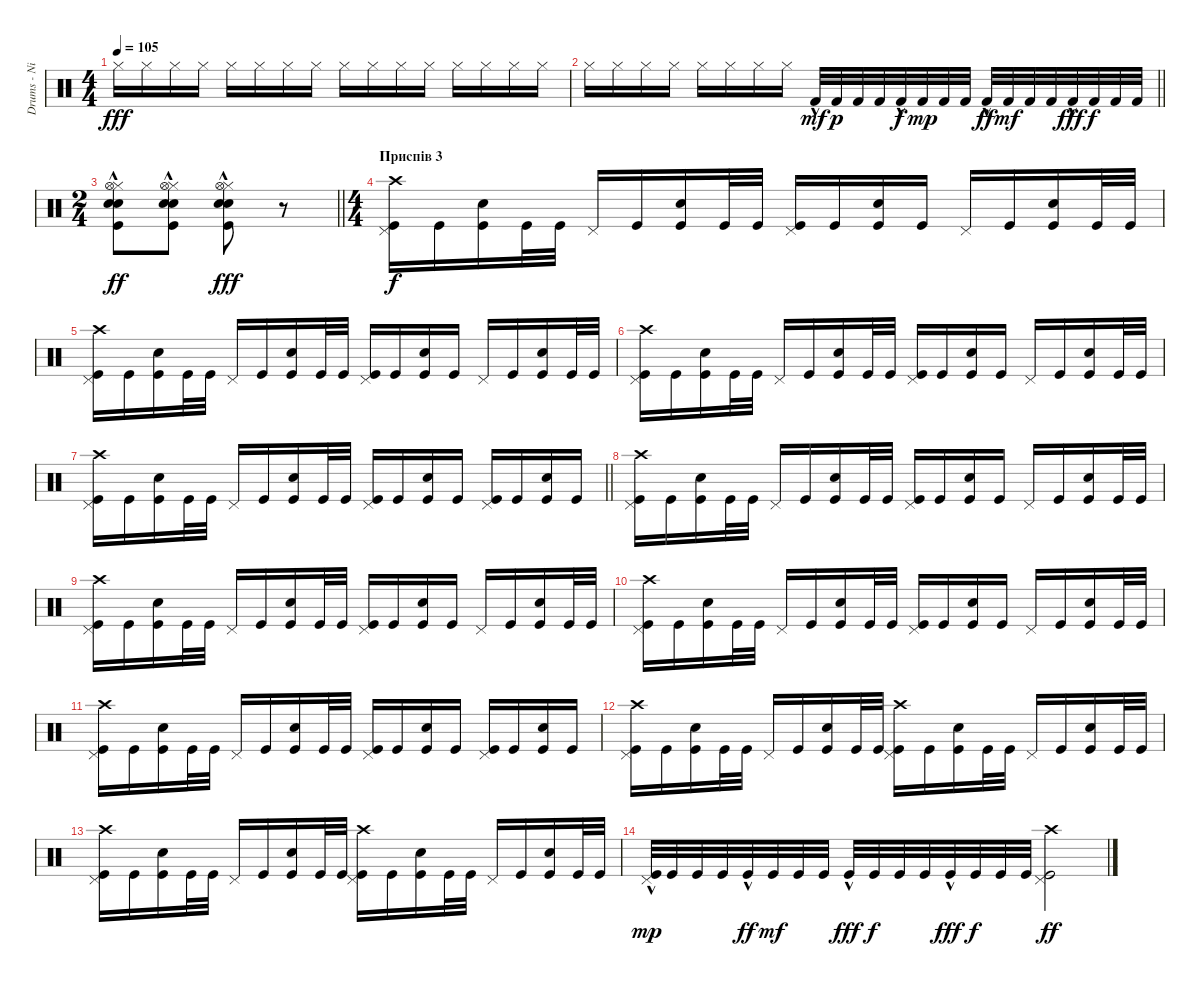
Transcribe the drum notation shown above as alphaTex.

\track ("Drums - NikiTon" "Drums - Ni") {instrument percussion}
\staff {score}
\articulation defaults
\ts (4 4)
\tempo 105
\clef neutral
\ks c "Hi-Hat (closed)".16{dy fff} "Hi-Hat (closed)".16 "Hi-Hat (closed)".16 "Hi-Hat (closed)".16 "Hi-Hat (closed)".16 "Hi-Hat (closed)".16 "Hi-Hat (closed)".16 "Hi-Hat (closed)".16 "Hi-Hat (closed)".16 "Hi-Hat (closed)".16 "Hi-Hat (closed)".16 "Hi-Hat (closed)".16 "Hi-Hat (closed)".16 "Hi-Hat (closed)".16 "Hi-Hat (closed)".16 "Hi-Hat (closed)".16
|
\barLineRight lightlight "Hi-Hat (closed)".16 "Hi-Hat (closed)".16 "Hi-Hat (closed)".16 "Hi-Hat (closed)".16 "Hi-Hat (closed)".16 "Hi-Hat (closed)".16 "Hi-Hat (closed)".16 "Hi-Hat (closed)".16 "Kick (hit) 2"{hac}.32{dy mf} "Kick (hit) 2".32{dy p} "Kick (hit) 2".32 "Kick (hit) 2".32 "Kick (hit) 2"{hac}.32{dy f} "Kick (hit) 2".32{dy mp} "Kick (hit) 2".32 "Kick (hit) 2".32 "Kick (hit) 2"{hac}.32{dy ff} "Kick (hit) 2".32{dy mf} "Kick (hit) 2".32 "Kick (hit) 2".32 "Kick (hit) 2"{hac}.32{dy fff} "Kick (hit) 2".32{dy f} "Kick (hit) 2".32 "Kick (hit) 2".32
|
\ts (2 4)
\barLineRight lightlight
("Hi-Hat (closed)" "Electric Snare (hit)" "Hi-Hat (open)" "Kick (hit)"{hac} "Snare (hit) 2").8{dy ff} ("Hi-Hat (closed)" "Electric Snare (hit)" "Hi-Hat (open)" "Kick (hit)"{hac} "Snare (hit) 2").8 ("Hi-Hat (closed)" "Electric Snare (hit)" "Hi-Hat (open)" "Kick (hit)"{hac} "Snare (hit) 2").8{dy fff} r.8 |
\ts (4 4)
\section ("" "Приспів 3")
("Kick (hit)" "Pedal Hi-Hat (hit)" "Crash high (hit)").16{dy f} "Kick (hit)".16 ("Kick (hit)" "Electric Snare (hit)").16 "Kick (hit)".32 "Kick (hit)".32 "Pedal Hi-Hat (hit)".16 "Kick (hit)".16 ("Kick (hit)" "Electric Snare (hit)").16 "Kick (hit)".32 "Kick (hit)".32 ("Kick (hit)" "Pedal Hi-Hat (hit)").16 "Kick (hit)".16 ("Kick (hit)" "Electric Snare (hit)").16 "Kick (hit)".16 "Pedal Hi-Hat (hit)".16 "Kick (hit)".16 ("Kick (hit)" "Electric Snare (hit)").16 "Kick (hit)".32 "Kick (hit)".32 |
("Kick (hit)" "Pedal Hi-Hat (hit)" "Crash high (hit)").16 "Kick (hit)".16 ("Kick (hit)" "Electric Snare (hit)").16 "Kick (hit)".32 "Kick (hit)".32 "Pedal Hi-Hat (hit)".16 "Kick (hit)".16 ("Kick (hit)" "Electric Snare (hit)").16 "Kick (hit)".32 "Kick (hit)".32 ("Kick (hit)" "Pedal Hi-Hat (hit)").16 "Kick (hit)".16 ("Kick (hit)" "Electric Snare (hit)").16 "Kick (hit)".16 "Pedal Hi-Hat (hit)".16 "Kick (hit)".16 ("Kick (hit)" "Electric Snare (hit)").16 "Kick (hit)".32 "Kick (hit)".32 |
("Kick (hit)" "Pedal Hi-Hat (hit)" "Crash high (hit)").16 "Kick (hit)".16 ("Kick (hit)" "Electric Snare (hit)").16 "Kick (hit)".32 "Kick (hit)".32 "Pedal Hi-Hat (hit)".16 "Kick (hit)".16 ("Kick (hit)" "Electric Snare (hit)").16 "Kick (hit)".32 "Kick (hit)".32 ("Kick (hit)" "Pedal Hi-Hat (hit)").16 "Kick (hit)".16 ("Kick (hit)" "Electric Snare (hit)").16 "Kick (hit)".16 "Pedal Hi-Hat (hit)".16 "Kick (hit)".16 ("Kick (hit)" "Electric Snare (hit)").16 "Kick (hit)".32 "Kick (hit)".32 |
\barLineRight lightlight
("Kick (hit)" "Pedal Hi-Hat (hit)" "Crash high (hit)").16 "Kick (hit)".16 ("Kick (hit)" "Electric Snare (hit)").16 "Kick (hit)".32 "Kick (hit)".32 "Pedal Hi-Hat (hit)".16 "Kick (hit)".16 ("Kick (hit)" "Electric Snare (hit)").16 "Kick (hit)".32 "Kick (hit)".32 ("Kick (hit)" "Pedal Hi-Hat (hit)").16 "Kick (hit)".16 ("Kick (hit)" "Electric Snare (hit)").16 "Kick (hit)".16 ("Kick (hit)" "Pedal Hi-Hat (hit)").16 "Kick (hit)".16 ("Kick (hit)" "Electric Snare (hit)").16 "Kick (hit)".16 |
("Kick (hit)" "Pedal Hi-Hat (hit)" "Crash high (hit)").16 "Kick (hit)".16 ("Kick (hit)" "Electric Snare (hit)").16 "Kick (hit)".32 "Kick (hit)".32 "Pedal Hi-Hat (hit)".16 "Kick (hit)".16 ("Kick (hit)" "Electric Snare (hit)").16 "Kick (hit)".32 "Kick (hit)".32 ("Kick (hit)" "Pedal Hi-Hat (hit)").16 "Kick (hit)".16 ("Kick (hit)" "Electric Snare (hit)").16 "Kick (hit)".16 "Pedal Hi-Hat (hit)".16 "Kick (hit)".16 ("Kick (hit)" "Electric Snare (hit)").16 "Kick (hit)".32 "Kick (hit)".32 |
("Kick (hit)" "Pedal Hi-Hat (hit)" "Crash high (hit)").16 "Kick (hit)".16 ("Kick (hit)" "Electric Snare (hit)").16 "Kick (hit)".32 "Kick (hit)".32 "Pedal Hi-Hat (hit)".16 "Kick (hit)".16 ("Kick (hit)" "Electric Snare (hit)").16 "Kick (hit)".32 "Kick (hit)".32 ("Kick (hit)" "Pedal Hi-Hat (hit)").16 "Kick (hit)".16 ("Kick (hit)" "Electric Snare (hit)").16 "Kick (hit)".16 "Pedal Hi-Hat (hit)".16 "Kick (hit)".16 ("Kick (hit)" "Electric Snare (hit)").16 "Kick (hit)".32 "Kick (hit)".32 |
("Kick (hit)" "Pedal Hi-Hat (hit)" "Crash high (hit)").16 "Kick (hit)".16 ("Kick (hit)" "Electric Snare (hit)").16 "Kick (hit)".32 "Kick (hit)".32 "Pedal Hi-Hat (hit)".16 "Kick (hit)".16 ("Kick (hit)" "Electric Snare (hit)").16 "Kick (hit)".32 "Kick (hit)".32 ("Kick (hit)" "Pedal Hi-Hat (hit)").16 "Kick (hit)".16 ("Kick (hit)" "Electric Snare (hit)").16 "Kick (hit)".16 "Pedal Hi-Hat (hit)".16 "Kick (hit)".16 ("Kick (hit)" "Electric Snare (hit)").16 "Kick (hit)".32 "Kick (hit)".32 |
("Kick (hit)" "Pedal Hi-Hat (hit)" "Crash high (hit)").16 "Kick (hit)".16 ("Kick (hit)" "Electric Snare (hit)").16 "Kick (hit)".32 "Kick (hit)".32 "Pedal Hi-Hat (hit)".16 "Kick (hit)".16 ("Kick (hit)" "Electric Snare (hit)").16 "Kick (hit)".32 "Kick (hit)".32 ("Kick (hit)" "Pedal Hi-Hat (hit)").16 "Kick (hit)".16 ("Kick (hit)" "Electric Snare (hit)").16 "Kick (hit)".16 ("Kick (hit)" "Pedal Hi-Hat (hit)").16 "Kick (hit)".16 ("Kick (hit)" "Electric Snare (hit)").16 "Kick (hit)".16 |
("Kick (hit)" "Pedal Hi-Hat (hit)" "Crash high (hit)").16 "Kick (hit)".16 ("Kick (hit)" "Electric Snare (hit)").16 "Kick (hit)".32 "Kick (hit)".32 "Pedal Hi-Hat (hit)".16 "Kick (hit)".16 ("Kick (hit)" "Electric Snare (hit)").16 "Kick (hit)".32 "Kick (hit)".32 ("Kick (hit)" "Pedal Hi-Hat (hit)" "Crash high (hit)").16 "Kick (hit)".16 ("Kick (hit)" "Electric Snare (hit)").16 "Kick (hit)".32 "Kick (hit)".32 "Pedal Hi-Hat (hit)".16 "Kick (hit)".16 ("Kick (hit)" "Electric Snare (hit)").16 "Kick (hit)".32 "Kick (hit)".32 |
("Kick (hit)" "Pedal Hi-Hat (hit)" "Crash high (hit)").16 "Kick (hit)".16 ("Kick (hit)" "Electric Snare (hit)").16 "Kick (hit)".32 "Kick (hit)".32 "Pedal Hi-Hat (hit)".16 "Kick (hit)".16 ("Kick (hit)" "Electric Snare (hit)").16 "Kick (hit)".32 "Kick (hit)".32 ("Kick (hit)" "Pedal Hi-Hat (hit)" "Crash high (hit)").16 "Kick (hit)".16 ("Kick (hit)" "Electric Snare (hit)").16 "Kick (hit)".32 "Kick (hit)".32 "Pedal Hi-Hat (hit)".16 "Kick (hit)".16 ("Kick (hit)" "Electric Snare (hit)").16 "Kick (hit)".32 "Kick (hit)".32 |
("Kick (hit)"{hac} "Pedal Hi-Hat (hit)").32{dy mp} "Kick (hit)".32 "Kick (hit)".32 "Kick (hit)".32 "Kick (hit)"{hac}.32{dy ff} "Kick (hit)".32{dy mf} "Kick (hit)".32 "Kick (hit)".32 "Kick (hit)"{hac}.32{dy fff} "Kick (hit)".32{dy f} "Kick (hit)".32 "Kick (hit)".32 "Kick (hit)"{hac}.32{dy fff} "Kick (hit)".32{dy f} "Kick (hit)".32 "Kick (hit)".32 ("Kick (hit)" "Pedal Hi-Hat (hit)" "Crash high (hit)").2{dy ff}
